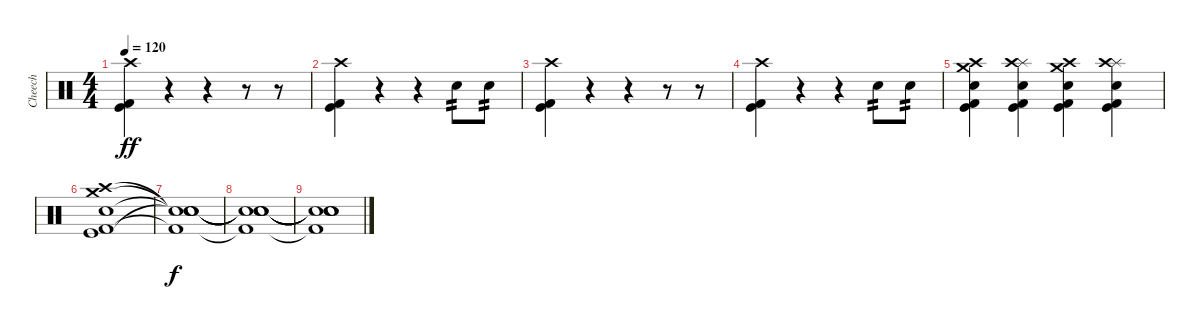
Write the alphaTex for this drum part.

\track ("Cheech" "Cheech") {instrument percussion}
\staff {score}
\articulation defaults
\ts (4 4)
\tempo 120
\clef neutral
\ks c
("Crash high (hit)" "Kick (hit) 2" "Kick (hit)").4{dy ff} r.4 r.4 r.8 r.8 |
("Crash high (hit)" "Kick (hit) 2" "Kick (hit)").4 r.4 r.4 "Electric Snare (hit)".8{tp 2} "Electric Snare (hit)".8{tp 2} |
("Crash high (hit)" "Kick (hit) 2" "Kick (hit)").4 r.4 r.4 r.8 r.8 |
("Crash high (hit)" "Kick (hit) 2" "Kick (hit)").4 r.4 r.4 "Electric Snare (hit)".8{tp 2} "Electric Snare (hit)".8{tp 2} |
("Crash high (hit)" "Crash medium (hit)" "Electric Snare (hit)" "Kick (hit) 2" "Kick (hit)").4 ("Splash (hit)" "Crash high (hit)" "Electric Snare (hit)" "Kick (hit) 2" "Kick (hit)").4 ("Crash medium (hit)" "Crash high (hit)" "Electric Snare (hit)" "Kick (hit) 2" "Kick (hit)").4 ("Splash (hit)" "Crash high (hit)" "Electric Snare (hit)" "Kick (hit) 2" "Kick (hit)").4 |
("Crash medium (hit)" "Crash high (hit)" "Electric Snare (hit)" "Kick (hit) 2" "Kick (hit)").1 |
("Snare (hit)"{t} "Snare (hit)"{t} "Snare (hit)"{t} "Kick (hit) 2"{t} "Snare (hit)"{t}).1{dy f} |
("Snare (hit)"{t} "Snare (hit)"{t} "Snare (hit)"{t} "Kick (hit) 2"{t} "Snare (hit)"{t}).1 |
("Snare (hit)"{t} "Snare (hit)"{t} "Snare (hit)"{t} "Kick (hit) 2"{t} "Snare (hit)"{t}).1
